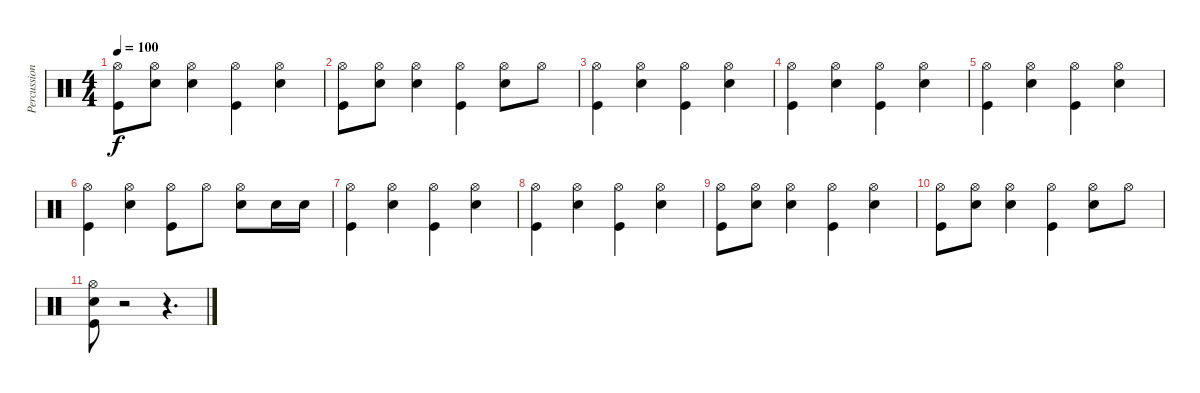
\track ("Percussion" "Percussion") {instrument percussion}
\staff {score}
\articulation defaults
\ts (4 4)
\tempo 100
\clef neutral
\ks c
("Hi-Hat (open)" "Kick (hit)").8{dy f} ("Hi-Hat (open)" "Snare (hit) 2").8 ("Hi-Hat (open)" "Snare (hit) 2").4 ("Hi-Hat (open)" "Kick (hit)").4 ("Hi-Hat (open)" "Snare (hit) 2").4 |
("Hi-Hat (open)" "Kick (hit)").8 ("Hi-Hat (open)" "Snare (hit) 2").8 ("Hi-Hat (open)" "Snare (hit) 2").4 ("Hi-Hat (open)" "Kick (hit)").4 ("Hi-Hat (open)" "Snare (hit) 2").8 "Hi-Hat (open)".8 |
("Hi-Hat (open)" "Kick (hit)").4 ("Hi-Hat (open)" "Snare (hit) 2").4 ("Hi-Hat (open)" "Kick (hit)").4 ("Hi-Hat (open)" "Snare (hit) 2").4 |
("Hi-Hat (open)" "Kick (hit)").4 ("Hi-Hat (open)" "Snare (hit) 2").4 ("Hi-Hat (open)" "Kick (hit)").4 ("Hi-Hat (open)" "Snare (hit) 2").4 |
("Hi-Hat (open)" "Kick (hit)").4 ("Hi-Hat (open)" "Snare (hit) 2").4 ("Hi-Hat (open)" "Kick (hit)").4 ("Hi-Hat (open)" "Snare (hit) 2").4 |
("Hi-Hat (open)" "Kick (hit)").4 ("Hi-Hat (open)" "Snare (hit) 2").4 ("Hi-Hat (open)" "Kick (hit)").8 "Hi-Hat (open)".8 ("Hi-Hat (open)" "Snare (hit) 2").8 "Snare (hit) 2".16 "Snare (hit) 2".16 |
("Hi-Hat (open)" "Kick (hit)").4 ("Hi-Hat (open)" "Snare (hit) 2").4 ("Hi-Hat (open)" "Kick (hit)").4 ("Hi-Hat (open)" "Snare (hit) 2").4 |
("Hi-Hat (open)" "Kick (hit)").4 ("Hi-Hat (open)" "Snare (hit) 2").4 ("Hi-Hat (open)" "Kick (hit)").4 ("Hi-Hat (open)" "Snare (hit) 2").4 |
("Hi-Hat (open)" "Kick (hit)").8 ("Hi-Hat (open)" "Snare (hit) 2").8 ("Hi-Hat (open)" "Snare (hit) 2").4 ("Hi-Hat (open)" "Kick (hit)").4 ("Hi-Hat (open)" "Snare (hit) 2").4 |
("Hi-Hat (open)" "Kick (hit)").8 ("Hi-Hat (open)" "Snare (hit) 2").8 ("Hi-Hat (open)" "Snare (hit) 2").4 ("Hi-Hat (open)" "Kick (hit)").4 ("Hi-Hat (open)" "Snare (hit) 2").8 "Hi-Hat (open)".8 |
("Hi-Hat (open)" "Snare (hit) 2" "Kick (hit)").8 r.2 r.4{d}
